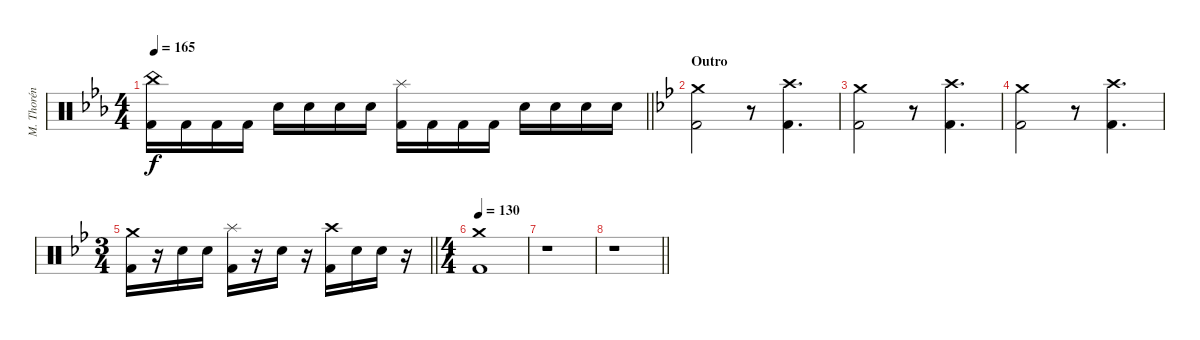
\track ("M. Thorén (Drums)" "M. Thorén ") {instrument percussion}
\staff {score}
\articulation defaults
\ts (4 4)
\tempo 165
\clef neutral
\barLineRight lightlight
\ks cminor
("China (hit)" "Kick (hit) 2").16{dy f} "Kick (hit) 2".16 "Kick (hit) 2".16 "Kick (hit) 2".16 "Electric Snare (hit)".16 "Electric Snare (hit)".16 "Electric Snare (hit)".16 "Electric Snare (hit)".16 ("Splash (hit)" "Kick (hit) 2").16 "Kick (hit) 2".16 "Kick (hit) 2".16 "Kick (hit) 2".16 "Electric Snare (hit)".16 "Electric Snare (hit)".16 "Electric Snare (hit)".16 "Electric Snare (hit)".16 |
\section ("" "Outro")
\ks gminor
("Crash medium (hit)" "Kick (hit) 2").2 r.8 ("Crash high (hit)" "Kick (hit) 2").4{d} |
("Crash medium (hit)" "Kick (hit) 2").2 r.8 ("Crash high (hit)" "Kick (hit) 2").4{d} |
("Crash medium (hit)" "Kick (hit) 2").2 r.8 ("Crash high (hit)" "Kick (hit) 2").4{d} |
\ts (3 4)
\barLineRight lightlight
("Crash medium (hit)" "Kick (hit) 2").16 r.16 "Electric Snare (hit)".16 "Electric Snare (hit)".16 ("Splash (hit)" "Kick (hit) 2").16 r.16 "Electric Snare (hit)".16 r.16 ("Crash high (hit)" "Kick (hit) 2").16 "Electric Snare (hit)".16 "Electric Snare (hit)".16 r.16 |
\ts (4 4)
\tempo 130
("Crash medium (hit)" "Kick (hit) 2").1 |
r.1 |
\barLineRight lightlight
r.1
